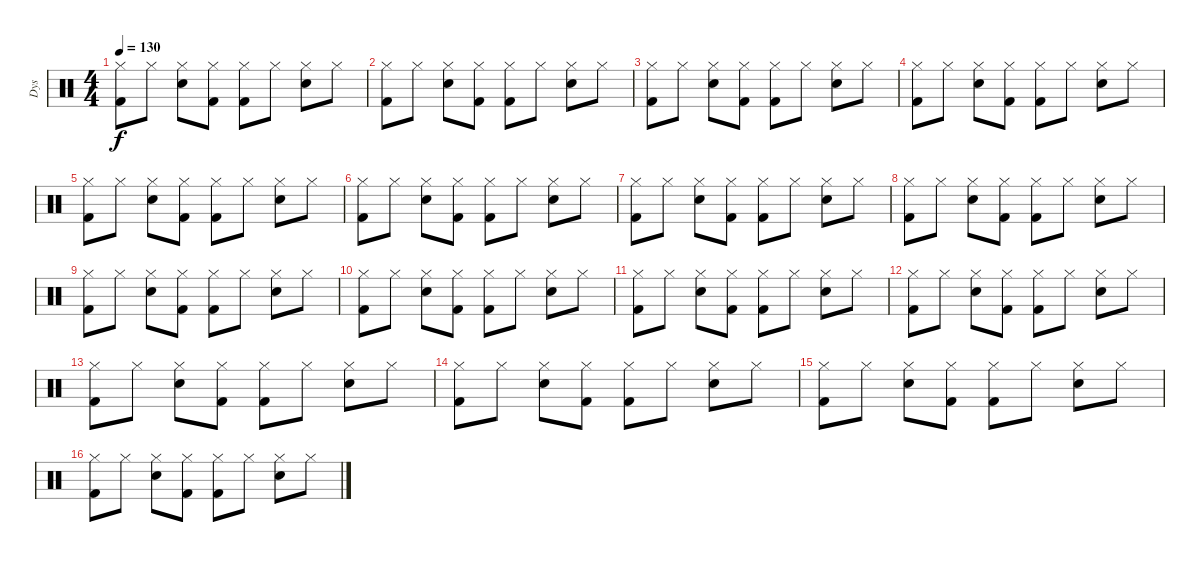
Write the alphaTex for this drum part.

\track ("Dys" "Dys") {instrument percussion}
\staff {score}
\articulation defaults
\ts (4 4)
\tempo 130
\clef neutral
\ks c
("Hi-Hat (closed)" "Kick (hit) 2").8{dy f} "Hi-Hat (closed)".8 ("Hi-Hat (closed)" "Electric Snare (hit)").8 ("Hi-Hat (closed)" "Kick (hit) 2").8 ("Hi-Hat (closed)" "Kick (hit) 2").8 "Hi-Hat (closed)".8 ("Hi-Hat (closed)" "Electric Snare (hit)").8 "Hi-Hat (closed)".8 |
("Hi-Hat (closed)" "Kick (hit) 2").8 "Hi-Hat (closed)".8 ("Hi-Hat (closed)" "Electric Snare (hit)").8 ("Hi-Hat (closed)" "Kick (hit) 2").8 ("Hi-Hat (closed)" "Kick (hit) 2").8 "Hi-Hat (closed)".8 ("Hi-Hat (closed)" "Electric Snare (hit)").8 "Hi-Hat (closed)".8 |
("Hi-Hat (closed)" "Kick (hit) 2").8 "Hi-Hat (closed)".8 ("Hi-Hat (closed)" "Electric Snare (hit)").8 ("Hi-Hat (closed)" "Kick (hit) 2").8 ("Hi-Hat (closed)" "Kick (hit) 2").8 "Hi-Hat (closed)".8 ("Hi-Hat (closed)" "Electric Snare (hit)").8 "Hi-Hat (closed)".8 |
("Hi-Hat (closed)" "Kick (hit) 2").8 "Hi-Hat (closed)".8 ("Hi-Hat (closed)" "Electric Snare (hit)").8 ("Hi-Hat (closed)" "Kick (hit) 2").8 ("Hi-Hat (closed)" "Kick (hit) 2").8 "Hi-Hat (closed)".8 ("Hi-Hat (closed)" "Electric Snare (hit)").8 "Hi-Hat (closed)".8 |
("Hi-Hat (closed)" "Kick (hit) 2").8 "Hi-Hat (closed)".8 ("Hi-Hat (closed)" "Electric Snare (hit)").8 ("Hi-Hat (closed)" "Kick (hit) 2").8 ("Hi-Hat (closed)" "Kick (hit) 2").8 "Hi-Hat (closed)".8 ("Hi-Hat (closed)" "Electric Snare (hit)").8 "Hi-Hat (closed)".8 |
("Hi-Hat (closed)" "Kick (hit) 2").8 "Hi-Hat (closed)".8 ("Hi-Hat (closed)" "Electric Snare (hit)").8 ("Hi-Hat (closed)" "Kick (hit) 2").8 ("Hi-Hat (closed)" "Kick (hit) 2").8 "Hi-Hat (closed)".8 ("Hi-Hat (closed)" "Electric Snare (hit)").8 "Hi-Hat (closed)".8 |
("Hi-Hat (closed)" "Kick (hit) 2").8 "Hi-Hat (closed)".8 ("Hi-Hat (closed)" "Electric Snare (hit)").8 ("Hi-Hat (closed)" "Kick (hit) 2").8 ("Hi-Hat (closed)" "Kick (hit) 2").8 "Hi-Hat (closed)".8 ("Hi-Hat (closed)" "Electric Snare (hit)").8 "Hi-Hat (closed)".8 |
("Hi-Hat (closed)" "Kick (hit) 2").8 "Hi-Hat (closed)".8 ("Hi-Hat (closed)" "Electric Snare (hit)").8 ("Hi-Hat (closed)" "Kick (hit) 2").8 ("Hi-Hat (closed)" "Kick (hit) 2").8 "Hi-Hat (closed)".8 ("Hi-Hat (closed)" "Electric Snare (hit)").8 "Hi-Hat (closed)".8 |
("Hi-Hat (closed)" "Kick (hit) 2").8 "Hi-Hat (closed)".8 ("Hi-Hat (closed)" "Electric Snare (hit)").8 ("Hi-Hat (closed)" "Kick (hit) 2").8 ("Hi-Hat (closed)" "Kick (hit) 2").8 "Hi-Hat (closed)".8 ("Hi-Hat (closed)" "Electric Snare (hit)").8 "Hi-Hat (closed)".8 |
("Hi-Hat (closed)" "Kick (hit) 2").8 "Hi-Hat (closed)".8 ("Hi-Hat (closed)" "Electric Snare (hit)").8 ("Hi-Hat (closed)" "Kick (hit) 2").8 ("Hi-Hat (closed)" "Kick (hit) 2").8 "Hi-Hat (closed)".8 ("Hi-Hat (closed)" "Electric Snare (hit)").8 "Hi-Hat (closed)".8 |
("Hi-Hat (closed)" "Kick (hit) 2").8 "Hi-Hat (closed)".8 ("Hi-Hat (closed)" "Electric Snare (hit)").8 ("Hi-Hat (closed)" "Kick (hit) 2").8 ("Hi-Hat (closed)" "Kick (hit) 2").8 "Hi-Hat (closed)".8 ("Hi-Hat (closed)" "Electric Snare (hit)").8 "Hi-Hat (closed)".8 |
("Hi-Hat (closed)" "Kick (hit) 2").8 "Hi-Hat (closed)".8 ("Hi-Hat (closed)" "Electric Snare (hit)").8 ("Hi-Hat (closed)" "Kick (hit) 2").8 ("Hi-Hat (closed)" "Kick (hit) 2").8 "Hi-Hat (closed)".8 ("Hi-Hat (closed)" "Electric Snare (hit)").8 "Hi-Hat (closed)".8 |
("Hi-Hat (closed)" "Kick (hit) 2").8 "Hi-Hat (closed)".8 ("Hi-Hat (closed)" "Electric Snare (hit)").8 ("Hi-Hat (closed)" "Kick (hit) 2").8 ("Hi-Hat (closed)" "Kick (hit) 2").8 "Hi-Hat (closed)".8 ("Hi-Hat (closed)" "Electric Snare (hit)").8 "Hi-Hat (closed)".8 |
("Hi-Hat (closed)" "Kick (hit) 2").8 "Hi-Hat (closed)".8 ("Hi-Hat (closed)" "Electric Snare (hit)").8 ("Hi-Hat (closed)" "Kick (hit) 2").8 ("Hi-Hat (closed)" "Kick (hit) 2").8 "Hi-Hat (closed)".8 ("Hi-Hat (closed)" "Electric Snare (hit)").8 "Hi-Hat (closed)".8 |
("Hi-Hat (closed)" "Kick (hit) 2").8 "Hi-Hat (closed)".8 ("Hi-Hat (closed)" "Electric Snare (hit)").8 ("Hi-Hat (closed)" "Kick (hit) 2").8 ("Hi-Hat (closed)" "Kick (hit) 2").8 "Hi-Hat (closed)".8 ("Hi-Hat (closed)" "Electric Snare (hit)").8 "Hi-Hat (closed)".8 |
("Hi-Hat (closed)" "Kick (hit) 2").8 "Hi-Hat (closed)".8 ("Hi-Hat (closed)" "Electric Snare (hit)").8 ("Hi-Hat (closed)" "Kick (hit) 2").8 ("Hi-Hat (closed)" "Kick (hit) 2").8 "Hi-Hat (closed)".8 ("Hi-Hat (closed)" "Electric Snare (hit)").8 "Hi-Hat (closed)".8
